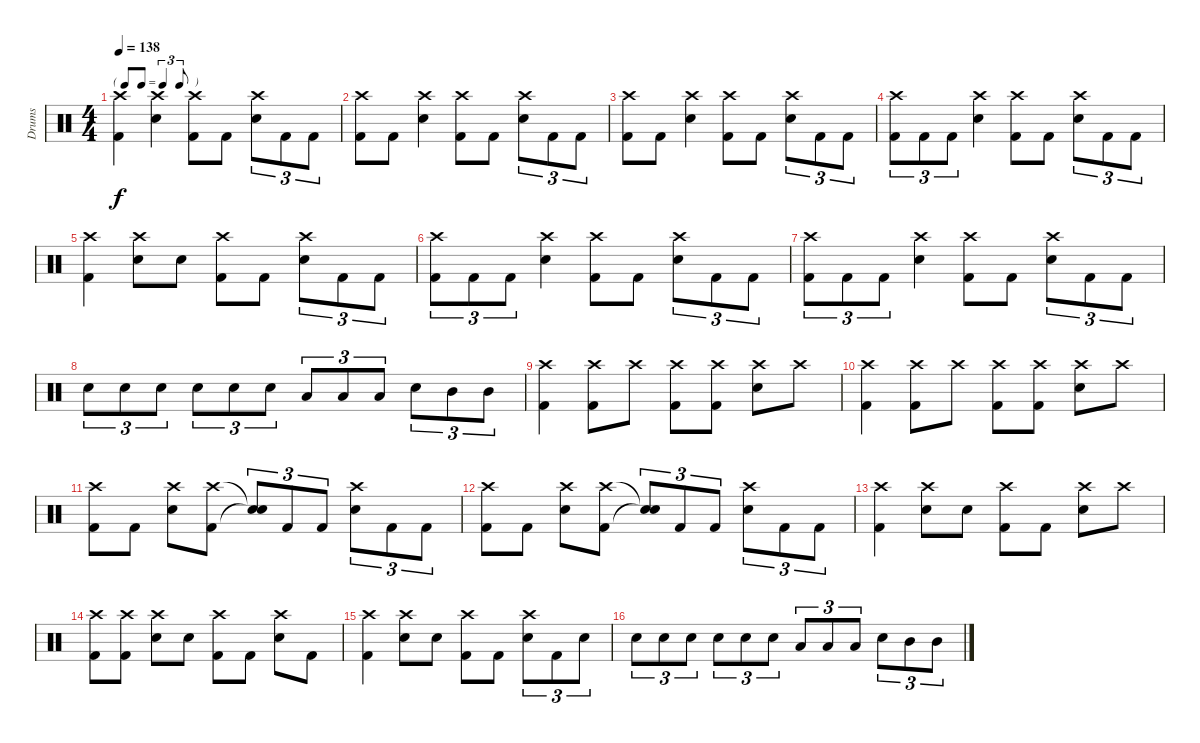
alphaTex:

\track ("Drums" "Drums") {instrument percussion}
\staff {score}
\articulation defaults
\ts (4 4)
\tf triplet8th
\tempo 138
\clef neutral
\ks c
("Crash high (hit)" "Kick (hit) 2").4{dy f} ("Crash high (hit)" "Snare (hit) 2").4 ("Crash high (hit)" "Kick (hit) 2").8 "Kick (hit) 2".8 ("Crash high (hit)" "Snare (hit) 2").8{tu (3 2)} "Kick (hit) 2".8{tu (3 2)} "Kick (hit) 2".8{tu (3 2)} |
("Crash high (hit)" "Kick (hit) 2").8 "Kick (hit) 2".8 ("Crash high (hit)" "Snare (hit) 2").4 ("Crash high (hit)" "Kick (hit) 2").8 "Kick (hit) 2".8 ("Crash high (hit)" "Snare (hit) 2").8{tu (3 2)} "Kick (hit) 2".8{tu (3 2)} "Kick (hit) 2".8{tu (3 2)} |
("Crash high (hit)" "Kick (hit) 2").8 "Kick (hit) 2".8 ("Crash high (hit)" "Snare (hit) 2").4 ("Crash high (hit)" "Kick (hit) 2").8 "Kick (hit) 2".8 ("Crash high (hit)" "Snare (hit) 2").8{tu (3 2)} "Kick (hit) 2".8{tu (3 2)} "Kick (hit) 2".8{tu (3 2)} |
("Crash high (hit)" "Kick (hit) 2").8{tu (3 2)} "Kick (hit) 2".8{tu (3 2)} "Kick (hit) 2".8{tu (3 2)} ("Crash high (hit)" "Snare (hit) 2").4 ("Crash high (hit)" "Kick (hit) 2").8 "Kick (hit) 2".8 ("Crash high (hit)" "Snare (hit) 2").8{tu (3 2)} "Kick (hit) 2".8{tu (3 2)} "Kick (hit) 2".8{tu (3 2)} |
("Crash high (hit)" "Kick (hit) 2").4 ("Crash high (hit)" "Snare (hit) 2").8 "Snare (hit) 2".8 ("Crash high (hit)" "Kick (hit) 2").8 "Kick (hit) 2".8 ("Crash high (hit)" "Snare (hit) 2").8{tu (3 2)} "Kick (hit) 2".8{tu (3 2)} "Kick (hit) 2".8{tu (3 2)} |
("Crash high (hit)" "Kick (hit) 2").8{tu (3 2)} "Kick (hit) 2".8{tu (3 2)} "Kick (hit) 2".8{tu (3 2)} ("Crash high (hit)" "Snare (hit) 2").4 ("Crash high (hit)" "Kick (hit) 2").8 "Kick (hit) 2".8 ("Crash high (hit)" "Snare (hit) 2").8{tu (3 2)} "Kick (hit) 2".8{tu (3 2)} "Kick (hit) 2".8{tu (3 2)} |
("Crash high (hit)" "Kick (hit) 2").8{tu (3 2)} "Kick (hit) 2".8{tu (3 2)} "Kick (hit) 2".8{tu (3 2)} ("Crash high (hit)" "Snare (hit) 2").4 ("Crash high (hit)" "Kick (hit) 2").8 "Kick (hit) 2".8 ("Crash high (hit)" "Snare (hit) 2").8{tu (3 2)} "Kick (hit) 2".8{tu (3 2)} "Kick (hit) 2".8{tu (3 2)} |
"Snare (hit) 2".8{tu (3 2)} "Snare (hit) 2".8{tu (3 2)} "Snare (hit) 2".8{tu (3 2)} "Snare (hit) 2".8{tu (3 2)} "Snare (hit) 2".8{tu (3 2)} "Snare (hit) 2".8{tu (3 2)} "Low Tom (hit)".8{tu (3 2)} "Low Tom (hit)".8{tu (3 2)} "Low Tom (hit)".8{tu (3 2)} "Snare (hit) 2".8{tu (3 2)} "Mid Tom (hit)".8{tu (3 2)} "Mid Tom (hit)".8{tu (3 2)} |
("Crash high (hit)" "Kick (hit) 2").4 ("Crash high (hit)" "Kick (hit) 2").8 "Crash high (hit)".8 ("Crash high (hit)" "Kick (hit) 2").8 ("Crash high (hit)" "Kick (hit) 2").8 ("Crash high (hit)" "Snare (hit) 2").8 "Crash high (hit)".8 |
("Crash high (hit)" "Kick (hit) 2").4 ("Crash high (hit)" "Kick (hit) 2").8 "Crash high (hit)".8 ("Crash high (hit)" "Kick (hit) 2").8 ("Crash high (hit)" "Kick (hit) 2").8 ("Crash high (hit)" "Snare (hit) 2").8 "Crash high (hit)".8 |
("Crash high (hit)" "Kick (hit) 2").8 "Kick (hit) 2".8 ("Crash high (hit)" "Snare (hit) 2").8 ("Crash high (hit)" "Kick (hit) 2").8 ("Snare (hit)"{t} "Snare (hit)"{t}).8{tu (3 2)} "Kick (hit) 2".8{tu (3 2)} "Kick (hit) 2".8{tu (3 2)} ("Crash high (hit)" "Snare (hit) 2").8{tu (3 2)} "Kick (hit) 2".8{tu (3 2)} "Kick (hit) 2".8{tu (3 2)} |
("Crash high (hit)" "Kick (hit) 2").8 "Kick (hit) 2".8 ("Crash high (hit)" "Snare (hit) 2").8 ("Crash high (hit)" "Kick (hit) 2").8 ("Snare (hit)"{t} "Snare (hit)"{t}).8{tu (3 2)} "Kick (hit) 2".8{tu (3 2)} "Kick (hit) 2".8{tu (3 2)} ("Crash high (hit)" "Snare (hit) 2").8{tu (3 2)} "Kick (hit) 2".8{tu (3 2)} "Kick (hit) 2".8{tu (3 2)} |
("Crash high (hit)" "Kick (hit) 2").4 ("Crash high (hit)" "Snare (hit) 2").8 "Snare (hit) 2".8 ("Crash high (hit)" "Kick (hit) 2").8 "Kick (hit) 2".8 ("Crash high (hit)" "Snare (hit) 2").8 "Crash high (hit)".8 |
("Crash high (hit)" "Kick (hit) 2").8 ("Crash high (hit)" "Kick (hit) 2").8 ("Crash high (hit)" "Snare (hit) 2").8 "Snare (hit) 2".8 ("Crash high (hit)" "Kick (hit) 2").8 "Kick (hit) 2".8 ("Crash high (hit)" "Snare (hit) 2").8 "Kick (hit) 2".8 |
("Crash high (hit)" "Kick (hit) 2").4 ("Crash high (hit)" "Snare (hit) 2").8 "Snare (hit) 2".8 ("Crash high (hit)" "Kick (hit) 2").8 "Kick (hit) 2".8 ("Crash high (hit)" "Snare (hit) 2").8{tu (3 2)} "Kick (hit) 2".8{tu (3 2)} "Snare (hit) 2".8{tu (3 2)} |
"Snare (hit) 2".8{tu (3 2)} "Snare (hit) 2".8{tu (3 2)} "Snare (hit) 2".8{tu (3 2)} "Snare (hit) 2".8{tu (3 2)} "Snare (hit) 2".8{tu (3 2)} "Snare (hit) 2".8{tu (3 2)} "Low Tom (hit)".8{tu (3 2)} "Low Tom (hit)".8{tu (3 2)} "Low Tom (hit)".8{tu (3 2)} "Snare (hit) 2".8{tu (3 2)} "Mid Tom (hit)".8{tu (3 2)} "Mid Tom (hit)".8{tu (3 2)}
